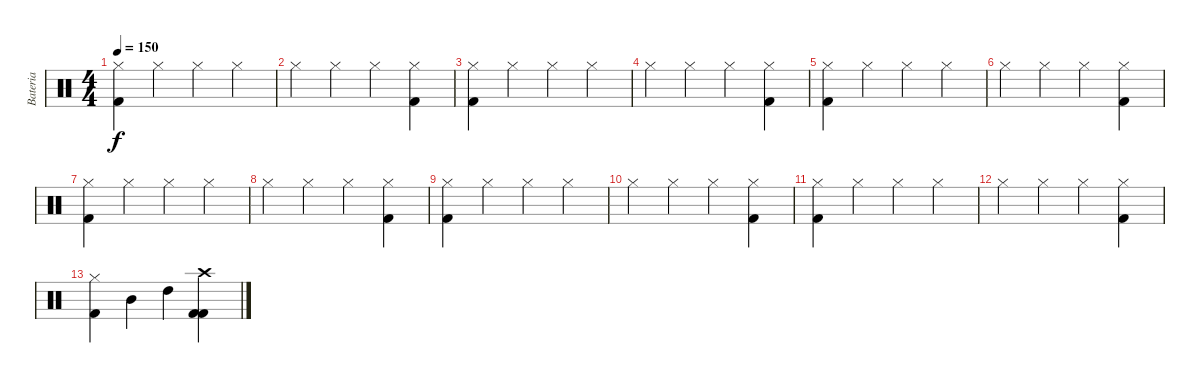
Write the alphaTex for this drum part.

\track ("Bateria" "Bateria") {instrument percussion}
\staff {score}
\articulation defaults
\ts (4 4)
\tempo 150
\clef neutral
\ks c
("Hi-Hat (closed)" "Kick (hit) 2").4{dy f} "Hi-Hat (closed)".4 "Hi-Hat (closed)".4 "Hi-Hat (closed)".4 |
"Hi-Hat (closed)".4 "Hi-Hat (closed)".4 "Hi-Hat (closed)".4 ("Hi-Hat (closed)" "Kick (hit) 2").4 |
("Hi-Hat (closed)" "Kick (hit) 2").4 "Hi-Hat (closed)".4 "Hi-Hat (closed)".4 "Hi-Hat (closed)".4 |
"Hi-Hat (closed)".4 "Hi-Hat (closed)".4 "Hi-Hat (closed)".4 ("Hi-Hat (closed)" "Kick (hit) 2").4 |
("Hi-Hat (closed)" "Kick (hit) 2").4 "Hi-Hat (closed)".4 "Hi-Hat (closed)".4 "Hi-Hat (closed)".4 |
"Hi-Hat (closed)".4 "Hi-Hat (closed)".4 "Hi-Hat (closed)".4 ("Hi-Hat (closed)" "Kick (hit) 2").4 |
("Hi-Hat (closed)" "Kick (hit) 2").4 "Hi-Hat (closed)".4 "Hi-Hat (closed)".4 "Hi-Hat (closed)".4 |
"Hi-Hat (closed)".4 "Hi-Hat (closed)".4 "Hi-Hat (closed)".4 ("Hi-Hat (closed)" "Kick (hit) 2").4 |
("Hi-Hat (closed)" "Kick (hit) 2").4 "Hi-Hat (closed)".4 "Hi-Hat (closed)".4 "Hi-Hat (closed)".4 |
"Hi-Hat (closed)".4 "Hi-Hat (closed)".4 "Hi-Hat (closed)".4 ("Hi-Hat (closed)" "Kick (hit) 2").4 |
("Hi-Hat (closed)" "Kick (hit) 2").4 "Hi-Hat (closed)".4 "Hi-Hat (closed)".4 "Hi-Hat (closed)".4 |
"Hi-Hat (closed)".4 "Hi-Hat (closed)".4 "Hi-Hat (closed)".4 ("Hi-Hat (closed)" "Kick (hit) 2").4 |
("Hi-Hat (closed)" "Kick (hit) 2").4 "Mid Tom (hit)".4 "High Tom (hit)".4 ("Crash high (hit)" "Kick (hit) 2" "Kick (hit) 2").4
